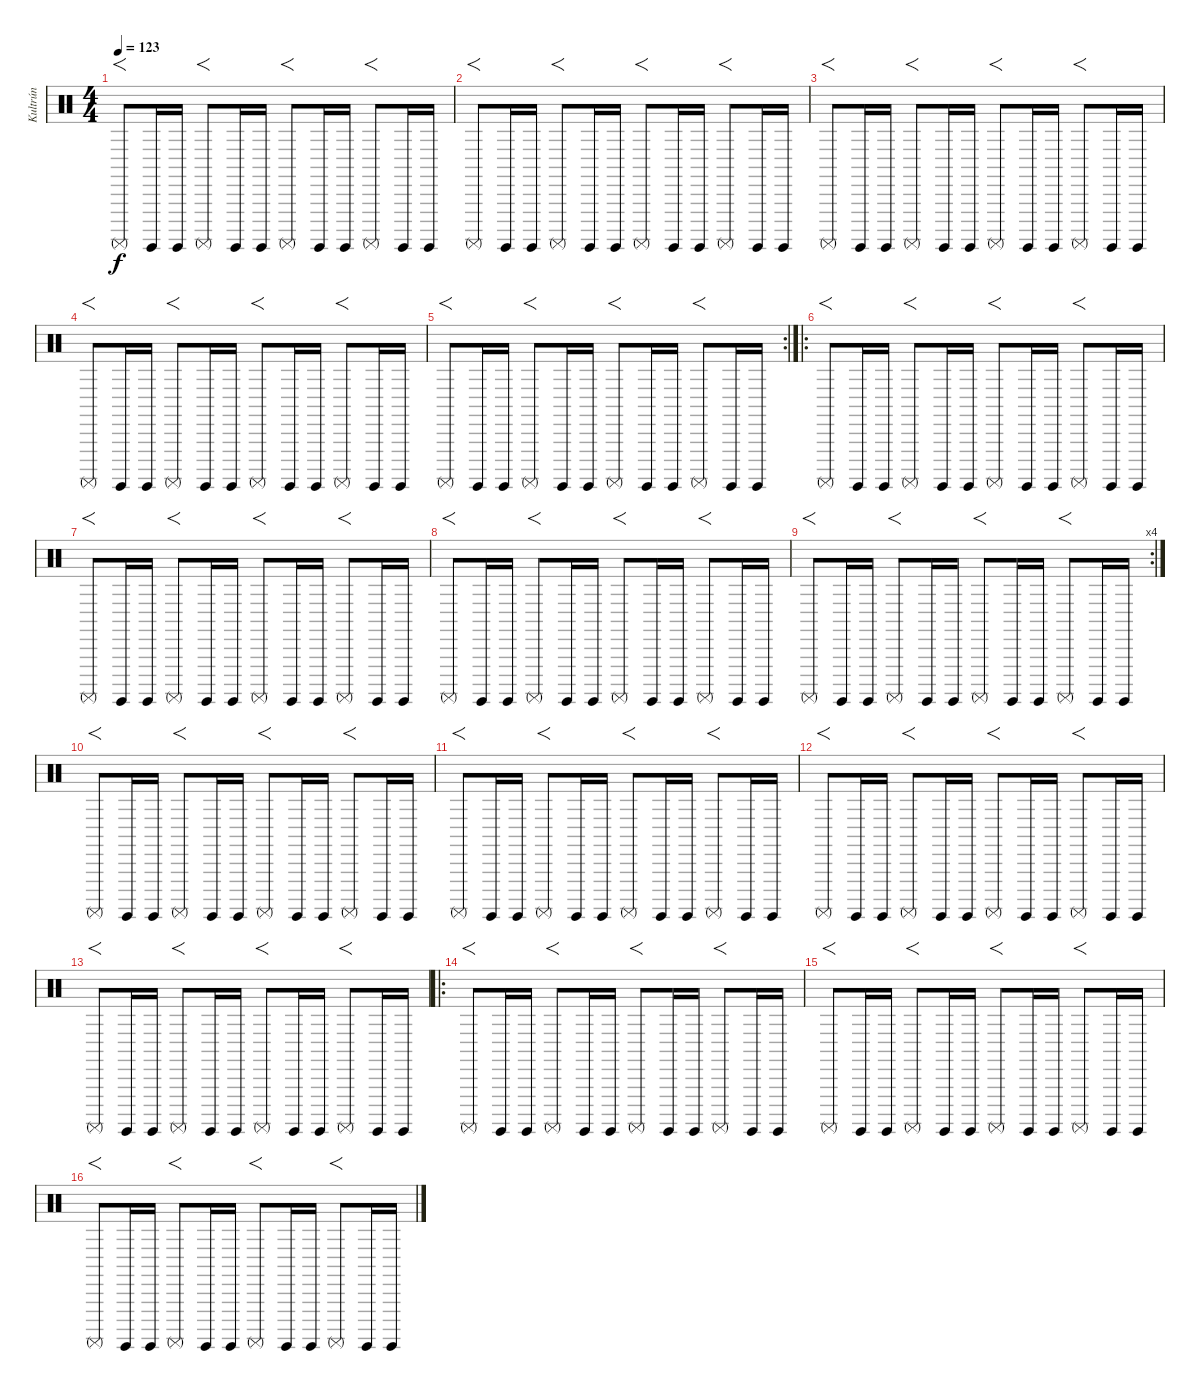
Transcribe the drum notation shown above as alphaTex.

\track ("Kultrún" "Kultrún") {instrument percussion}
\staff {score}
\articulation defaults
\ts (4 4)
\tempo 123
\clef neutral
\ks c "Surdo (mute)".8{f dy f} "Surdo (hit)".16 "Surdo (hit)".16 "Surdo (mute)".8{f} "Surdo (hit)".16 "Surdo (hit)".16 "Surdo (mute)".8{f} "Surdo (hit)".16 "Surdo (hit)".16 "Surdo (mute)".8{f} "Surdo (hit)".16 "Surdo (hit)".16
|
"Surdo (mute)".8{f} "Surdo (hit)".16 "Surdo (hit)".16 "Surdo (mute)".8{f} "Surdo (hit)".16 "Surdo (hit)".16 "Surdo (mute)".8{f} "Surdo (hit)".16 "Surdo (hit)".16 "Surdo (mute)".8{f} "Surdo (hit)".16 "Surdo (hit)".16 |
"Surdo (mute)".8{f} "Surdo (hit)".16 "Surdo (hit)".16 "Surdo (mute)".8{f} "Surdo (hit)".16 "Surdo (hit)".16 "Surdo (mute)".8{f} "Surdo (hit)".16 "Surdo (hit)".16 "Surdo (mute)".8{f} "Surdo (hit)".16 "Surdo (hit)".16 |
"Surdo (mute)".8{f} "Surdo (hit)".16 "Surdo (hit)".16 "Surdo (mute)".8{f} "Surdo (hit)".16 "Surdo (hit)".16 "Surdo (mute)".8{f} "Surdo (hit)".16 "Surdo (hit)".16 "Surdo (mute)".8{f} "Surdo (hit)".16 "Surdo (hit)".16 |
\rc 2 "Surdo (mute)".8{f} "Surdo (hit)".16 "Surdo (hit)".16 "Surdo (mute)".8{f} "Surdo (hit)".16 "Surdo (hit)".16 "Surdo (mute)".8{f} "Surdo (hit)".16 "Surdo (hit)".16 "Surdo (mute)".8{f} "Surdo (hit)".16 "Surdo (hit)".16
|
\ro "Surdo (mute)".8{f} "Surdo (hit)".16 "Surdo (hit)".16 "Surdo (mute)".8{f} "Surdo (hit)".16 "Surdo (hit)".16 "Surdo (mute)".8{f} "Surdo (hit)".16 "Surdo (hit)".16 "Surdo (mute)".8{f} "Surdo (hit)".16 "Surdo (hit)".16
|
"Surdo (mute)".8{f} "Surdo (hit)".16 "Surdo (hit)".16 "Surdo (mute)".8{f} "Surdo (hit)".16 "Surdo (hit)".16 "Surdo (mute)".8{f} "Surdo (hit)".16 "Surdo (hit)".16 "Surdo (mute)".8{f} "Surdo (hit)".16 "Surdo (hit)".16 |
"Surdo (mute)".8{f} "Surdo (hit)".16 "Surdo (hit)".16 "Surdo (mute)".8{f} "Surdo (hit)".16 "Surdo (hit)".16 "Surdo (mute)".8{f} "Surdo (hit)".16 "Surdo (hit)".16 "Surdo (mute)".8{f} "Surdo (hit)".16 "Surdo (hit)".16 |
\rc 4 "Surdo (mute)".8{f} "Surdo (hit)".16 "Surdo (hit)".16 "Surdo (mute)".8{f} "Surdo (hit)".16 "Surdo (hit)".16 "Surdo (mute)".8{f} "Surdo (hit)".16 "Surdo (hit)".16 "Surdo (mute)".8{f} "Surdo (hit)".16 "Surdo (hit)".16
|
"Surdo (mute)".8{f} "Surdo (hit)".16 "Surdo (hit)".16 "Surdo (mute)".8{f} "Surdo (hit)".16 "Surdo (hit)".16 "Surdo (mute)".8{f} "Surdo (hit)".16 "Surdo (hit)".16 "Surdo (mute)".8{f} "Surdo (hit)".16 "Surdo (hit)".16 |
"Surdo (mute)".8{f} "Surdo (hit)".16 "Surdo (hit)".16 "Surdo (mute)".8{f} "Surdo (hit)".16 "Surdo (hit)".16 "Surdo (mute)".8{f} "Surdo (hit)".16 "Surdo (hit)".16 "Surdo (mute)".8{f} "Surdo (hit)".16 "Surdo (hit)".16 |
"Surdo (mute)".8{f} "Surdo (hit)".16 "Surdo (hit)".16 "Surdo (mute)".8{f} "Surdo (hit)".16 "Surdo (hit)".16 "Surdo (mute)".8{f} "Surdo (hit)".16 "Surdo (hit)".16 "Surdo (mute)".8{f} "Surdo (hit)".16 "Surdo (hit)".16 |
"Surdo (mute)".8{f} "Surdo (hit)".16 "Surdo (hit)".16 "Surdo (mute)".8{f} "Surdo (hit)".16 "Surdo (hit)".16 "Surdo (mute)".8{f} "Surdo (hit)".16 "Surdo (hit)".16 "Surdo (mute)".8{f} "Surdo (hit)".16 "Surdo (hit)".16 |
\ro "Surdo (mute)".8{f} "Surdo (hit)".16 "Surdo (hit)".16 "Surdo (mute)".8{f} "Surdo (hit)".16 "Surdo (hit)".16 "Surdo (mute)".8{f} "Surdo (hit)".16 "Surdo (hit)".16 "Surdo (mute)".8{f} "Surdo (hit)".16 "Surdo (hit)".16
|
"Surdo (mute)".8{f} "Surdo (hit)".16 "Surdo (hit)".16 "Surdo (mute)".8{f} "Surdo (hit)".16 "Surdo (hit)".16 "Surdo (mute)".8{f} "Surdo (hit)".16 "Surdo (hit)".16 "Surdo (mute)".8{f} "Surdo (hit)".16 "Surdo (hit)".16 |
"Surdo (mute)".8{f} "Surdo (hit)".16 "Surdo (hit)".16 "Surdo (mute)".8{f} "Surdo (hit)".16 "Surdo (hit)".16 "Surdo (mute)".8{f} "Surdo (hit)".16 "Surdo (hit)".16 "Surdo (mute)".8{f} "Surdo (hit)".16 "Surdo (hit)".16
